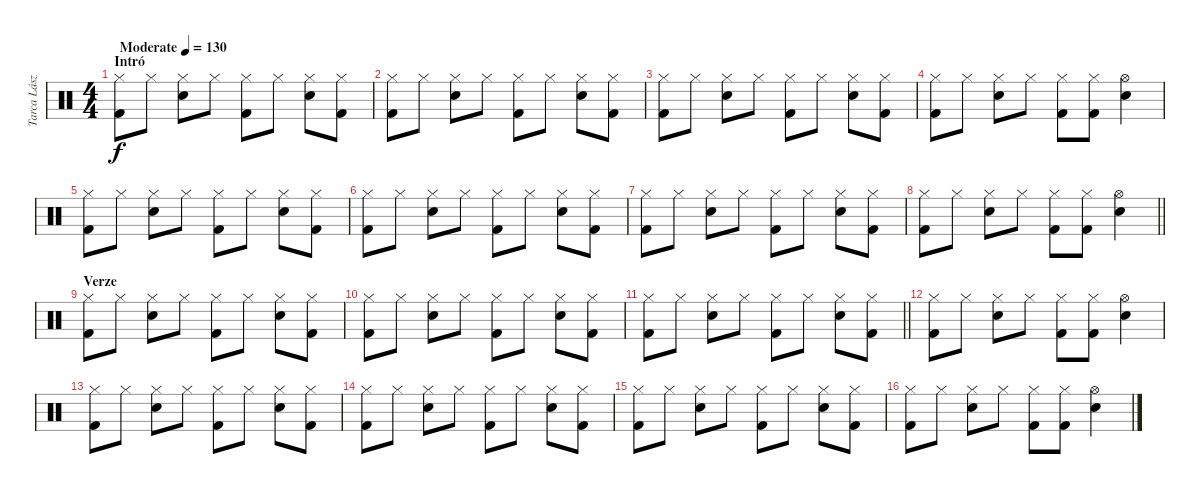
\track ("Tarca László - dob" "Tarca Lász") {instrument percussion}
\staff {score}
\articulation defaults
\ts (4 4)
\section ("" "Intró")
\tempo (130 "Moderate")
\clef neutral
\ks c
("Hi-Hat (closed)" "Kick (hit) 2").8{dy f} "Hi-Hat (closed)".8 ("Hi-Hat (closed)" "Snare (hit) 2").8 "Hi-Hat (closed)".8 ("Hi-Hat (closed)" "Kick (hit) 2").8 "Hi-Hat (closed)".8 ("Hi-Hat (closed)" "Snare (hit) 2").8 ("Hi-Hat (closed)" "Kick (hit) 2").8 |
("Hi-Hat (closed)" "Kick (hit) 2").8 "Hi-Hat (closed)".8 ("Hi-Hat (closed)" "Snare (hit) 2").8 "Hi-Hat (closed)".8 ("Hi-Hat (closed)" "Kick (hit) 2").8 "Hi-Hat (closed)".8 ("Hi-Hat (closed)" "Snare (hit) 2").8 ("Hi-Hat (closed)" "Kick (hit) 2").8 |
("Hi-Hat (closed)" "Kick (hit) 2").8 "Hi-Hat (closed)".8 ("Hi-Hat (closed)" "Snare (hit) 2").8 "Hi-Hat (closed)".8 ("Hi-Hat (closed)" "Kick (hit) 2").8 "Hi-Hat (closed)".8 ("Hi-Hat (closed)" "Snare (hit) 2").8 ("Hi-Hat (closed)" "Kick (hit) 2").8 |
("Hi-Hat (closed)" "Kick (hit) 2").8 "Hi-Hat (closed)".8 ("Hi-Hat (closed)" "Snare (hit) 2").8 "Hi-Hat (closed)".8 ("Hi-Hat (closed)" "Kick (hit) 2").8 ("Hi-Hat (closed)" "Kick (hit) 2").8 ("Hi-Hat (open)" "Snare (hit) 2").4 |
("Hi-Hat (closed)" "Kick (hit) 2").8 "Hi-Hat (closed)".8 ("Hi-Hat (closed)" "Snare (hit) 2").8 "Hi-Hat (closed)".8 ("Hi-Hat (closed)" "Kick (hit) 2").8 "Hi-Hat (closed)".8 ("Hi-Hat (closed)" "Snare (hit) 2").8 ("Hi-Hat (closed)" "Kick (hit) 2").8 |
("Hi-Hat (closed)" "Kick (hit) 2").8 "Hi-Hat (closed)".8 ("Hi-Hat (closed)" "Snare (hit) 2").8 "Hi-Hat (closed)".8 ("Hi-Hat (closed)" "Kick (hit) 2").8 "Hi-Hat (closed)".8 ("Hi-Hat (closed)" "Snare (hit) 2").8 ("Hi-Hat (closed)" "Kick (hit) 2").8 |
("Hi-Hat (closed)" "Kick (hit) 2").8 "Hi-Hat (closed)".8 ("Hi-Hat (closed)" "Snare (hit) 2").8 "Hi-Hat (closed)".8 ("Hi-Hat (closed)" "Kick (hit) 2").8 "Hi-Hat (closed)".8 ("Hi-Hat (closed)" "Snare (hit) 2").8 ("Hi-Hat (closed)" "Kick (hit) 2").8 |
\barLineRight lightlight
("Hi-Hat (closed)" "Kick (hit) 2").8 "Hi-Hat (closed)".8 ("Hi-Hat (closed)" "Snare (hit) 2").8 "Hi-Hat (closed)".8 ("Hi-Hat (closed)" "Kick (hit) 2").8 ("Hi-Hat (closed)" "Kick (hit) 2").8 ("Hi-Hat (open)" "Snare (hit) 2").4 |
\section ("" "Verze")
("Hi-Hat (closed)" "Kick (hit) 2").8 "Hi-Hat (closed)".8 ("Hi-Hat (closed)" "Snare (hit) 2").8 "Hi-Hat (closed)".8 ("Hi-Hat (closed)" "Kick (hit) 2").8 "Hi-Hat (closed)".8 ("Hi-Hat (closed)" "Snare (hit) 2").8 ("Hi-Hat (closed)" "Kick (hit) 2").8 |
("Hi-Hat (closed)" "Kick (hit) 2").8 "Hi-Hat (closed)".8 ("Hi-Hat (closed)" "Snare (hit) 2").8 "Hi-Hat (closed)".8 ("Hi-Hat (closed)" "Kick (hit) 2").8 "Hi-Hat (closed)".8 ("Hi-Hat (closed)" "Snare (hit) 2").8 ("Hi-Hat (closed)" "Kick (hit) 2").8 |
\barLineRight lightlight
("Hi-Hat (closed)" "Kick (hit) 2").8 "Hi-Hat (closed)".8 ("Hi-Hat (closed)" "Snare (hit) 2").8 "Hi-Hat (closed)".8 ("Hi-Hat (closed)" "Kick (hit) 2").8 "Hi-Hat (closed)".8 ("Hi-Hat (closed)" "Snare (hit) 2").8 ("Hi-Hat (closed)" "Kick (hit) 2").8 |
("Hi-Hat (closed)" "Kick (hit) 2").8 "Hi-Hat (closed)".8 ("Hi-Hat (closed)" "Snare (hit) 2").8 "Hi-Hat (closed)".8 ("Hi-Hat (closed)" "Kick (hit) 2").8 ("Hi-Hat (closed)" "Kick (hit) 2").8 ("Hi-Hat (open)" "Snare (hit) 2").4 |
("Hi-Hat (closed)" "Kick (hit) 2").8 "Hi-Hat (closed)".8 ("Hi-Hat (closed)" "Snare (hit) 2").8 "Hi-Hat (closed)".8 ("Hi-Hat (closed)" "Kick (hit) 2").8 "Hi-Hat (closed)".8 ("Hi-Hat (closed)" "Snare (hit) 2").8 ("Hi-Hat (closed)" "Kick (hit) 2").8 |
("Hi-Hat (closed)" "Kick (hit) 2").8 "Hi-Hat (closed)".8 ("Hi-Hat (closed)" "Snare (hit) 2").8 "Hi-Hat (closed)".8 ("Hi-Hat (closed)" "Kick (hit) 2").8 "Hi-Hat (closed)".8 ("Hi-Hat (closed)" "Snare (hit) 2").8 ("Hi-Hat (closed)" "Kick (hit) 2").8 |
("Hi-Hat (closed)" "Kick (hit) 2").8 "Hi-Hat (closed)".8 ("Hi-Hat (closed)" "Snare (hit) 2").8 "Hi-Hat (closed)".8 ("Hi-Hat (closed)" "Kick (hit) 2").8 "Hi-Hat (closed)".8 ("Hi-Hat (closed)" "Snare (hit) 2").8 ("Hi-Hat (closed)" "Kick (hit) 2").8 |
("Hi-Hat (closed)" "Kick (hit) 2").8 "Hi-Hat (closed)".8 ("Hi-Hat (closed)" "Snare (hit) 2").8 "Hi-Hat (closed)".8 ("Hi-Hat (closed)" "Kick (hit) 2").8 ("Hi-Hat (closed)" "Kick (hit) 2").8 ("Hi-Hat (open)" "Snare (hit) 2").4
